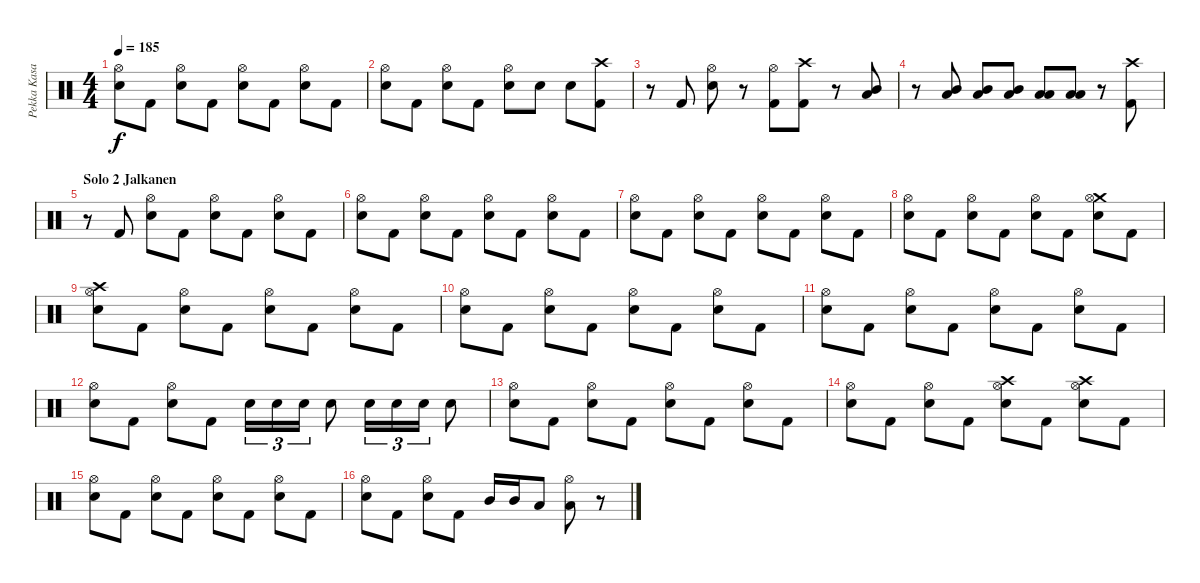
\track ("Pekka Kasari" "Pekka Kasa") {instrument percussion}
\staff {score}
\articulation defaults
\ts (4 4)
\tempo 185
\clef neutral
\ks c
("Hi-Hat (open)" "Snare (hit) 2").8{dy f} "Kick (hit) 2".8 ("Snare (hit) 2" "Hi-Hat (open)").8 "Kick (hit) 2".8 ("Snare (hit) 2" "Hi-Hat (open)").8 "Kick (hit) 2".8 ("Hi-Hat (open)" "Snare (hit) 2").8 "Kick (hit) 2".8 |
("Hi-Hat (open)" "Snare (hit) 2").8 "Kick (hit) 2".8 ("Hi-Hat (open)" "Snare (hit) 2").8 "Kick (hit) 2".8 ("Hi-Hat (open)" "Snare (hit) 2").8 "Snare (hit) 2".8 "Snare (hit) 2".8 ("Kick (hit) 2" "Crash high (hit)").8 |
r.8 "Kick (hit) 2".8 ("Hi-Hat (open)" "Snare (hit) 2").8 r.8 ("Hi-Hat (open)" "Kick (hit) 2").8 ("Crash high (hit)" "Kick (hit) 2").8 r.8 ("Mid Tom (hit)" "Low Tom (hit)").8 |
r.8 ("Mid Tom (hit)" "Low Tom (hit)").8 ("Mid Tom (hit)" "Low Tom (hit)").8 ("Mid Tom (hit)" "Low Tom (hit)").8 ("Low Tom (hit)" "Low Floor Tom (hit)").8 ("Low Tom (hit)" "Low Floor Tom (hit)").8 r.8 ("Crash high (hit)" "Kick (hit) 2").8 |
\section ("" "Solo 2 Jalkanen")
r.8 "Kick (hit) 2".8 ("Hi-Hat (open)" "Snare (hit) 2").8 "Kick (hit) 2".8 ("Snare (hit) 2" "Hi-Hat (open)").8 "Kick (hit) 2".8 ("Hi-Hat (open)" "Snare (hit) 2").8 "Kick (hit) 2".8 |
("Hi-Hat (open)" "Snare (hit) 2").8 "Kick (hit) 2".8 ("Hi-Hat (open)" "Snare (hit) 2").8 "Kick (hit) 2".8 ("Snare (hit) 2" "Hi-Hat (open)").8 "Kick (hit) 2".8 ("Hi-Hat (open)" "Snare (hit) 2").8 "Kick (hit) 2".8 |
("Hi-Hat (open)" "Snare (hit) 2").8 "Kick (hit) 2".8 ("Hi-Hat (open)" "Snare (hit) 2").8 "Kick (hit) 2".8 ("Snare (hit) 2" "Hi-Hat (open)").8 "Kick (hit) 2".8 ("Hi-Hat (open)" "Snare (hit) 2").8 "Kick (hit) 2".8 |
("Hi-Hat (open)" "Snare (hit) 2").8 "Kick (hit) 2".8 ("Hi-Hat (open)" "Snare (hit) 2").8 "Kick (hit) 2".8 ("Snare (hit) 2" "Hi-Hat (open)").8 "Kick (hit) 2".8 ("Crash medium (hit)" "Hi-Hat (open)" "Snare (hit) 2").8 "Kick (hit) 2".8 |
("Crash high (hit)" "Hi-Hat (open)" "Snare (hit) 2").8 "Kick (hit) 2".8 ("Hi-Hat (open)" "Snare (hit) 2").8 "Kick (hit) 2".8 ("Snare (hit) 2" "Hi-Hat (open)").8 "Kick (hit) 2".8 ("Hi-Hat (open)" "Snare (hit) 2").8 "Kick (hit) 2".8 |
("Hi-Hat (open)" "Snare (hit) 2").8 "Kick (hit) 2".8 ("Hi-Hat (open)" "Snare (hit) 2").8 "Kick (hit) 2".8 ("Snare (hit) 2" "Hi-Hat (open)").8 "Kick (hit) 2".8 ("Hi-Hat (open)" "Snare (hit) 2").8 "Kick (hit) 2".8 |
("Hi-Hat (open)" "Snare (hit) 2").8 "Kick (hit) 2".8 ("Hi-Hat (open)" "Snare (hit) 2").8 "Kick (hit) 2".8 ("Snare (hit) 2" "Hi-Hat (open)").8 "Kick (hit) 2".8 ("Hi-Hat (open)" "Snare (hit) 2").8 "Kick (hit) 2".8 |
("Hi-Hat (open)" "Snare (hit) 2").8 "Kick (hit) 2".8 ("Hi-Hat (open)" "Snare (hit) 2").8 "Kick (hit) 2".8 "Snare (hit) 2".16{tu (3 2)} "Snare (hit) 2".16{tu (3 2)} "Snare (hit) 2".16{tu (3 2)} "Snare (hit) 2".8 "Snare (hit) 2".16{tu (3 2)} "Snare (hit) 2".16{tu (3 2)} "Snare (hit) 2".16{tu (3 2)} "Snare (hit) 2".8 |
("Hi-Hat (open)" "Snare (hit) 2").8 "Kick (hit) 2".8 ("Hi-Hat (open)" "Snare (hit) 2").8 "Kick (hit) 2".8 ("Snare (hit) 2" "Hi-Hat (open)").8 "Kick (hit) 2".8 ("Hi-Hat (open)" "Snare (hit) 2").8 "Kick (hit) 2".8 |
("Hi-Hat (open)" "Snare (hit) 2").8 "Kick (hit) 2".8 ("Hi-Hat (open)" "Snare (hit) 2").8 "Kick (hit) 2".8 ("Snare (hit) 2" "Crash high (hit)" "Hi-Hat (open)").8 "Kick (hit) 2".8 ("Crash high (hit)" "Hi-Hat (open)" "Snare (hit) 2").8 "Kick (hit) 2".8 |
("Hi-Hat (open)" "Snare (hit) 2").8 "Kick (hit) 2".8 ("Hi-Hat (open)" "Snare (hit) 2").8 "Kick (hit) 2".8 ("Snare (hit) 2" "Hi-Hat (open)").8 "Kick (hit) 2".8 ("Hi-Hat (open)" "Snare (hit) 2").8 "Kick (hit) 2".8 |
("Hi-Hat (open)" "Snare (hit) 2").8 "Kick (hit) 2".8 ("Hi-Hat (open)" "Snare (hit) 2").8 "Kick (hit) 2".8 "Mid Tom (hit)".16 "Mid Tom (hit)".16 "Low Tom (hit)".8 ("Low Floor Tom (hit)" "Hi-Hat (open)").8 r.8
